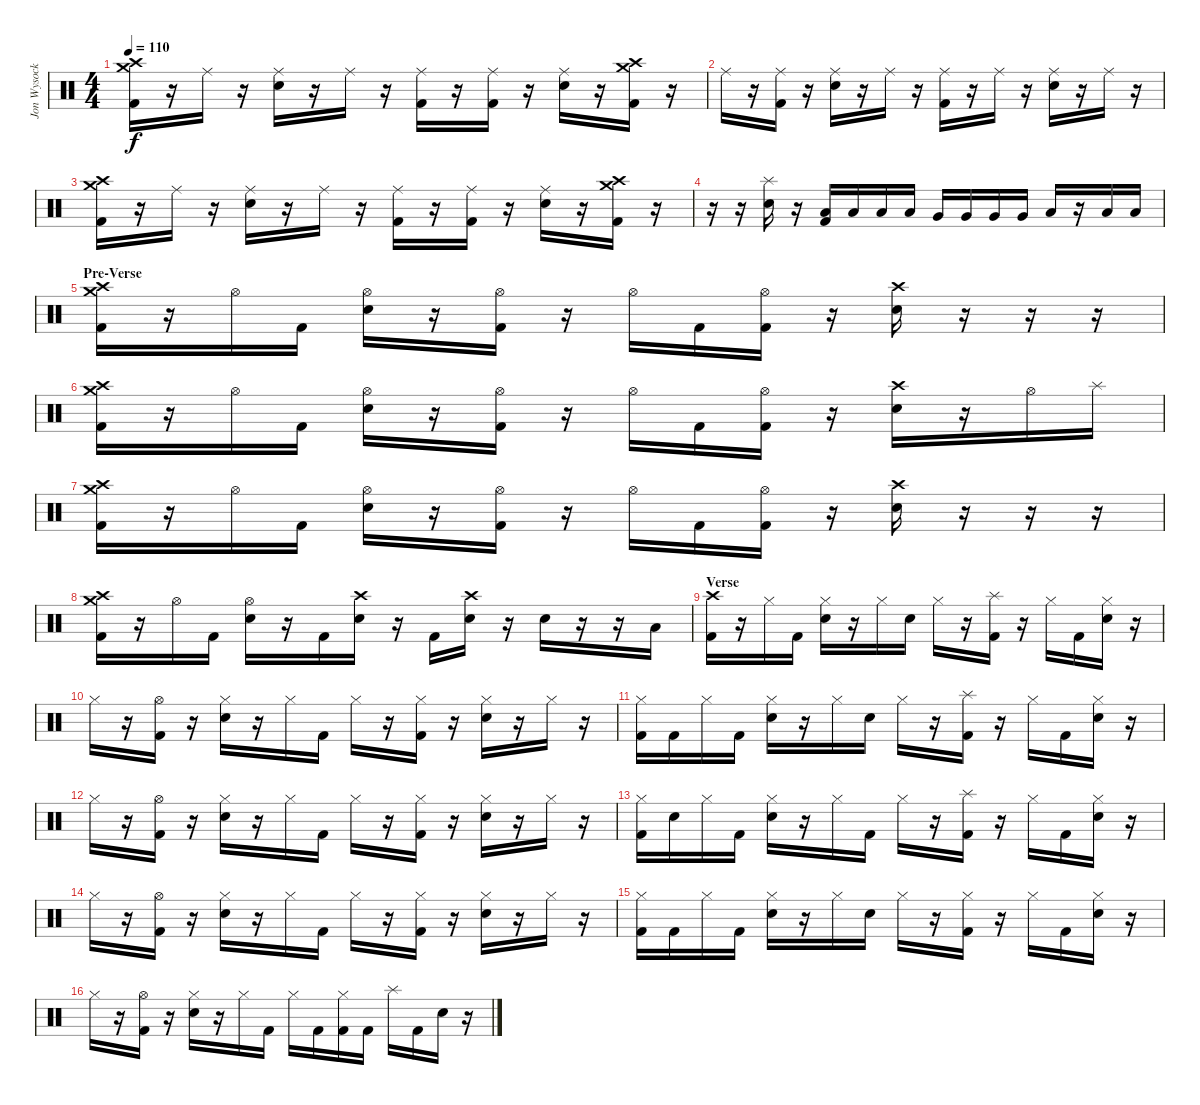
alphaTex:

\track ("Jon Wysocki" "Jon Wysock") {instrument percussion}
\staff {score}
\articulation defaults
\ts (4 4)
\tempo 110
\clef neutral
\ks c
("Crash medium (hit)" "Crash high (hit)" "Kick (hit) 2").16{dy f} r.16 "Ride (middle)".16 r.16 ("Ride (middle)" "Snare (hit) 2").16 r.16 "Ride (middle)".16 r.16 ("Ride (middle)" "Kick (hit) 2").16 r.16 ("Ride (middle)" "Kick (hit) 2").16 r.16 ("Ride (middle)" "Snare (hit) 2").16 r.16 ("Crash medium (hit)" "Crash high (hit)" "Kick (hit) 2").16 r.16 |
"Ride (middle)".16 r.16 ("Ride (middle)" "Kick (hit) 2").16 r.16 ("Ride (middle)" "Snare (hit) 2").16 r.16 "Ride (middle)".16 r.16 ("Ride (middle)" "Kick (hit) 2").16 r.16 "Ride (middle)".16 r.16 ("Ride (middle)" "Snare (hit) 2").16 r.16 "Ride (middle)".16 r.16 |
("Crash medium (hit)" "Crash high (hit)" "Kick (hit) 2").16 r.16 "Ride (middle)".16 r.16 ("Ride (middle)" "Snare (hit) 2").16 r.16 "Ride (middle)".16 r.16 ("Ride (middle)" "Kick (hit) 2").16 r.16 ("Ride (middle)" "Kick (hit) 2").16 r.16 ("Ride (middle)" "Snare (hit) 2").16 r.16 ("Crash medium (hit)" "Crash high (hit)" "Kick (hit) 2").16 r.16 |
r.16 r.16 ("Splash (hit)" "Snare (hit) 2").16 r.16 ("Low Tom (hit)" "Kick (hit) 2").16 "Low Tom (hit)".16 "Low Tom (hit)".16 "Low Tom (hit)".16 "Very Low Tom (hit)".16 "Very Low Tom (hit)".16 "Very Low Tom (hit)".16 "Very Low Tom (hit)".16 "Low Floor Tom (hit)".16 r.16 "Low Floor Tom (hit)".16 "Low Floor Tom (hit)".16 |
\section ("" "Pre-Verse")
("Crash medium (hit)" "Crash high (hit)" "Kick (hit) 2").16 r.16 "Hi-Hat (open)".16 "Kick (hit) 2".16 ("Hi-Hat (open)" "Snare (hit) 2").16 r.16 ("Hi-Hat (open)" "Kick (hit) 2").16 r.16 "Hi-Hat (open)".16 "Kick (hit) 2".16 ("Hi-Hat (open)" "Kick (hit) 2").16 r.16 ("Crash high (hit)" "Snare (hit) 2").16 r.16 r.16 r.16 |
("Crash medium (hit)" "Crash high (hit)" "Kick (hit) 2").16 r.16 "Hi-Hat (open)".16 "Kick (hit) 2".16 ("Hi-Hat (open)" "Snare (hit) 2").16 r.16 ("Hi-Hat (open)" "Kick (hit) 2").16 r.16 "Hi-Hat (open)".16 "Kick (hit) 2".16 ("Hi-Hat (open)" "Kick (hit) 2").16 r.16 ("Crash high (hit)" "Snare (hit) 2").16 r.16 "Hi-Hat (open)".16 "Splash (hit)".16 |
("Crash medium (hit)" "Crash high (hit)" "Kick (hit) 2").16 r.16 "Hi-Hat (open)".16 "Kick (hit) 2".16 ("Hi-Hat (open)" "Snare (hit) 2").16 r.16 ("Hi-Hat (open)" "Kick (hit) 2").16 r.16 "Hi-Hat (open)".16 "Kick (hit) 2".16 ("Hi-Hat (open)" "Kick (hit) 2").16 r.16 ("Crash high (hit)" "Snare (hit) 2").16 r.16 r.16 r.16 |
("Crash medium (hit)" "Crash high (hit)" "Kick (hit) 2").16 r.16 "Hi-Hat (open)".16 "Kick (hit) 2".16 ("Hi-Hat (open)" "Snare (hit) 2").16 r.16 "Kick (hit) 2".16 ("Crash high (hit)" "Snare (hit) 2").16 r.16 "Kick (hit) 2".16 ("Crash high (hit)" "Snare (hit) 2").16 r.16 "Snare (hit) 2".16 r.16 r.16 "Low Tom (hit)".16 |
\section ("" "Verse")
("Crash high (hit)" "Kick (hit) 2").16 r.16 "Hi-Hat (closed)".16 "Kick (hit) 2".16 ("Hi-Hat (closed)" "Snare (hit) 2").16 r.16 "Hi-Hat (closed)".16 "Snare (hit) 2".16 "Hi-Hat (closed)".16 r.16 ("Splash (hit)" "Kick (hit) 2").16 r.16 "Hi-Hat (closed)".16 "Kick (hit) 2".16 ("Hi-Hat (closed)" "Snare (hit) 2").16 r.16 |
"Hi-Hat (closed)".16 r.16 ("Hi-Hat (open)" "Kick (hit) 2").16 r.16 ("Hi-Hat (closed)" "Snare (hit) 2").16 r.16 "Hi-Hat (closed)".16 "Kick (hit) 2".16 "Hi-Hat (closed)".16 r.16 ("Hi-Hat (closed)" "Kick (hit) 2").16 r.16 ("Hi-Hat (closed)" "Snare (hit) 2").16 r.16 "Hi-Hat (closed)".16 r.16 |
("Hi-Hat (closed)" "Kick (hit) 2").16 "Kick (hit) 2".16 "Hi-Hat (closed)".16 "Kick (hit) 2".16 ("Hi-Hat (closed)" "Snare (hit) 2").16 r.16 "Hi-Hat (closed)".16 "Snare (hit) 2".16 "Hi-Hat (closed)".16 r.16 ("Splash (hit)" "Kick (hit) 2").16 r.16 "Hi-Hat (closed)".16 "Kick (hit) 2".16 ("Hi-Hat (closed)" "Snare (hit) 2").16 r.16 |
"Hi-Hat (closed)".16 r.16 ("Hi-Hat (open)" "Kick (hit) 2").16 r.16 ("Hi-Hat (closed)" "Snare (hit) 2").16 r.16 "Hi-Hat (closed)".16 "Kick (hit) 2".16 "Hi-Hat (closed)".16 r.16 ("Hi-Hat (closed)" "Kick (hit) 2").16 r.16 ("Hi-Hat (closed)" "Snare (hit) 2").16 r.16 "Hi-Hat (closed)".16 r.16 |
("Hi-Hat (closed)" "Kick (hit) 2").16 "Snare (hit) 2".16 "Hi-Hat (closed)".16 "Kick (hit) 2".16 ("Hi-Hat (closed)" "Snare (hit) 2").16 r.16 "Hi-Hat (closed)".16 "Kick (hit) 2".16 "Hi-Hat (closed)".16 r.16 ("Splash (hit)" "Kick (hit) 2").16 r.16 "Hi-Hat (closed)".16 "Kick (hit) 2".16 ("Hi-Hat (closed)" "Snare (hit) 2").16 r.16 |
"Hi-Hat (closed)".16 r.16 ("Hi-Hat (open)" "Kick (hit) 2").16 r.16 ("Hi-Hat (closed)" "Snare (hit) 2").16 r.16 "Hi-Hat (closed)".16 "Kick (hit) 2".16 "Hi-Hat (closed)".16 r.16 ("Hi-Hat (closed)" "Kick (hit) 2").16 r.16 ("Hi-Hat (closed)" "Snare (hit) 2").16 r.16 "Hi-Hat (closed)".16 r.16 |
("Hi-Hat (closed)" "Kick (hit) 2").16 "Kick (hit) 2".16 "Hi-Hat (closed)".16 "Kick (hit) 2".16 ("Hi-Hat (closed)" "Snare (hit) 2").16 r.16 "Hi-Hat (closed)".16 "Snare (hit) 2".16 "Hi-Hat (closed)".16 r.16 ("Hi-Hat (closed)" "Kick (hit) 2").16 r.16 "Hi-Hat (closed)".16 "Kick (hit) 2".16 ("Hi-Hat (closed)" "Snare (hit) 2").16 r.16 |
"Hi-Hat (closed)".16 r.16 ("Hi-Hat (open)" "Kick (hit) 2").16 r.16 ("Hi-Hat (closed)" "Snare (hit) 2").16 r.16 "Hi-Hat (closed)".16 "Kick (hit) 2".16 "Hi-Hat (closed)".16 "Kick (hit) 2".16 ("Hi-Hat (closed)" "Kick (hit) 2").16 "Kick (hit) 2".16 "Splash (hit)".16 "Kick (hit) 2".16 "Snare (hit) 2".16 r.16
